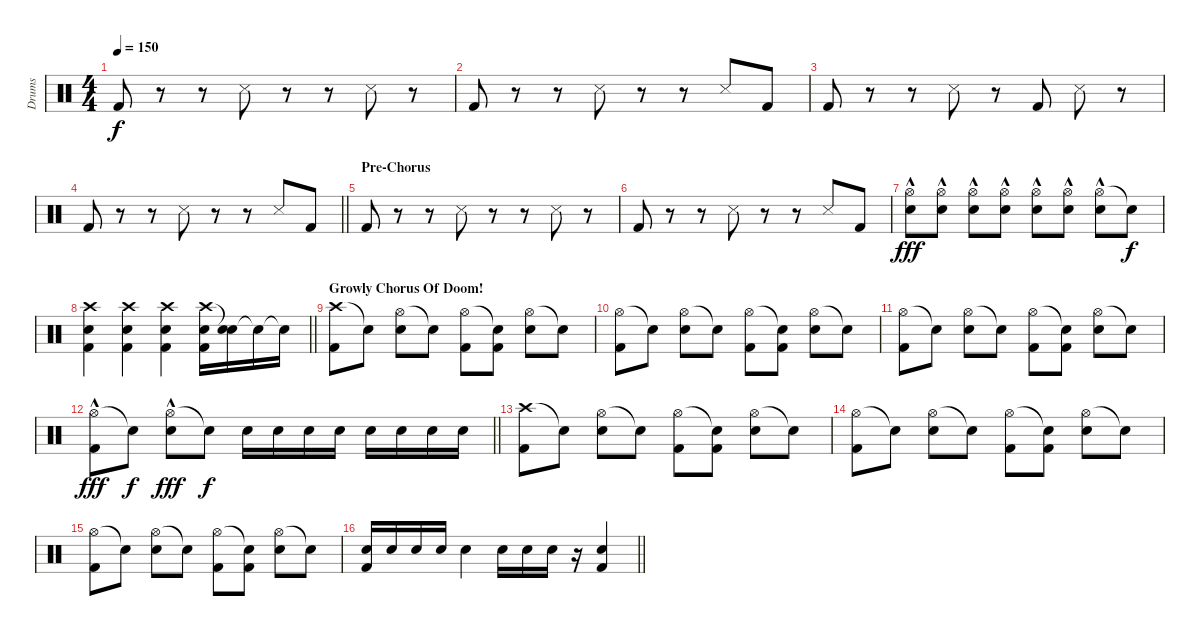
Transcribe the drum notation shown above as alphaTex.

\track ("Drums" "Drums") {instrument percussion}
\staff {score}
\articulation defaults
\ts (4 4)
\tempo 150
\clef neutral
\ks c "Kick (hit) 2".8{dy f}
r.8 r.8 "Snare (side stick) 3".8 r.8 r.8 "Snare (side stick) 3".8 r.8 |
"Kick (hit) 2".8 r.8 r.8 "Snare (side stick) 3".8 r.8 r.8 "Snare (side stick) 3".8 "Kick (hit) 2".8 |
"Kick (hit) 2".8 r.8 r.8 "Snare (side stick) 3".8 r.8 "Kick (hit) 2".8 "Snare (side stick) 3".8 r.8 |
\barLineRight lightlight "Kick (hit) 2".8
r.8 r.8 "Snare (side stick) 3".8 r.8 r.8 "Snare (side stick) 3".8 "Kick (hit) 2".8 |
\section ("" "Pre-Chorus")
"Kick (hit) 2".8 r.8 r.8 "Snare (side stick) 3".8 r.8 r.8 "Snare (side stick) 3".8 r.8 |
"Kick (hit) 2".8 r.8 r.8 "Snare (side stick) 3".8 r.8 r.8 "Snare (side stick) 3".8 "Kick (hit) 2".8 |
("Hi-Hat (open)" "Electric Snare (hit)"{hac}).8{dy fff} ("Hi-Hat (open)" "Electric Snare (hit)"{hac}).8 ("Hi-Hat (open)" "Electric Snare (hit)"{hac}).8 ("Hi-Hat (open)" "Electric Snare (hit)"{hac}).8 ("Hi-Hat (open)" "Electric Snare (hit)"{hac}).8 ("Hi-Hat (open)" "Electric Snare (hit)"{hac}).8 ("Hi-Hat (open)" "Electric Snare (hit)"{hac}).8 "Snare (hit)"{t}.8{dy f} |
\barLineRight lightlight
("Crash high (hit)" "Electric Snare (hit)" "Kick (hit) 2").4 ("Crash high (hit)" "Electric Snare (hit)" "Kick (hit) 2").4 ("Crash high (hit)" "Electric Snare (hit)" "Kick (hit) 2").4 ("Crash high (hit)" "Electric Snare (hit)" "Kick (hit) 2").16 ("Snare (hit)"{t} "Electric Snare (hit)").16 "Snare (hit)"{t}.16 "Snare (hit)"{t}.16 |
\section ("" "Growly Chorus Of Doom!")
("Crash high (hit)" "Kick (hit) 2").8 "Snare (hit)"{t}.8 ("Hi-Hat (open)" "Electric Snare (hit)").8 "Snare (hit)"{t}.8 ("Hi-Hat (open)" "Kick (hit) 2").8 ("Snare (hit)"{t} "Kick (hit) 2").8 ("Hi-Hat (open)" "Electric Snare (hit)").8 "Snare (hit)"{t}.8 |
("Hi-Hat (open)" "Kick (hit) 2").8 "Snare (hit)"{t}.8 ("Hi-Hat (open)" "Electric Snare (hit)").8 "Snare (hit)"{t}.8 ("Hi-Hat (open)" "Kick (hit) 2").8 ("Snare (hit)"{t} "Kick (hit) 2").8 ("Hi-Hat (open)" "Electric Snare (hit)").8 "Snare (hit)"{t}.8 |
("Hi-Hat (open)" "Kick (hit) 2").8 "Snare (hit)"{t}.8 ("Hi-Hat (open)" "Electric Snare (hit)").8 "Snare (hit)"{t}.8 ("Hi-Hat (open)" "Kick (hit) 2").8 ("Snare (hit)"{t} "Kick (hit) 2").8 ("Hi-Hat (open)" "Electric Snare (hit)").8 "Snare (hit)"{t}.8 |
\barLineRight lightlight
("Hi-Hat (open)"{hac} "Kick (hit) 2").8{dy fff} "Snare (hit)"{t}.8{dy f} ("Hi-Hat (open)"{hac} "Electric Snare (hit)").8{dy fff} "Snare (hit)"{t}.8{dy f} "Electric Snare (hit)".16 "Electric Snare (hit)".16 "Electric Snare (hit)".16 "Electric Snare (hit)".16 "Electric Snare (hit)".16 "Electric Snare (hit)".16 "Electric Snare (hit)".16 "Electric Snare (hit)".16 |
("Crash high (hit)" "Kick (hit) 2").8 "Snare (hit)"{t}.8 ("Hi-Hat (open)" "Electric Snare (hit)").8 "Snare (hit)"{t}.8 ("Hi-Hat (open)" "Kick (hit) 2").8 ("Snare (hit)"{t} "Kick (hit) 2").8 ("Hi-Hat (open)" "Electric Snare (hit)").8 "Snare (hit)"{t}.8 |
("Hi-Hat (open)" "Kick (hit) 2").8 "Snare (hit)"{t}.8 ("Hi-Hat (open)" "Electric Snare (hit)").8 "Snare (hit)"{t}.8 ("Hi-Hat (open)" "Kick (hit) 2").8 ("Snare (hit)"{t} "Kick (hit) 2").8 ("Hi-Hat (open)" "Electric Snare (hit)").8 "Snare (hit)"{t}.8 |
("Hi-Hat (open)" "Kick (hit) 2").8 "Snare (hit)"{t}.8 ("Hi-Hat (open)" "Electric Snare (hit)").8 "Snare (hit)"{t}.8 ("Hi-Hat (open)" "Kick (hit) 2").8 ("Snare (hit)"{t} "Kick (hit) 2").8 ("Hi-Hat (open)" "Electric Snare (hit)").8 "Snare (hit)"{t}.8 |
\barLineRight lightlight
("Electric Snare (hit)" "Kick (hit) 2").16 "Electric Snare (hit)".16 "Electric Snare (hit)".16 "Electric Snare (hit)".16 "Electric Snare (hit)".4 "Electric Snare (hit)".16 "Electric Snare (hit)".16 "Electric Snare (hit)".16 r.16 ("Electric Snare (hit)" "Kick (hit) 2").4
